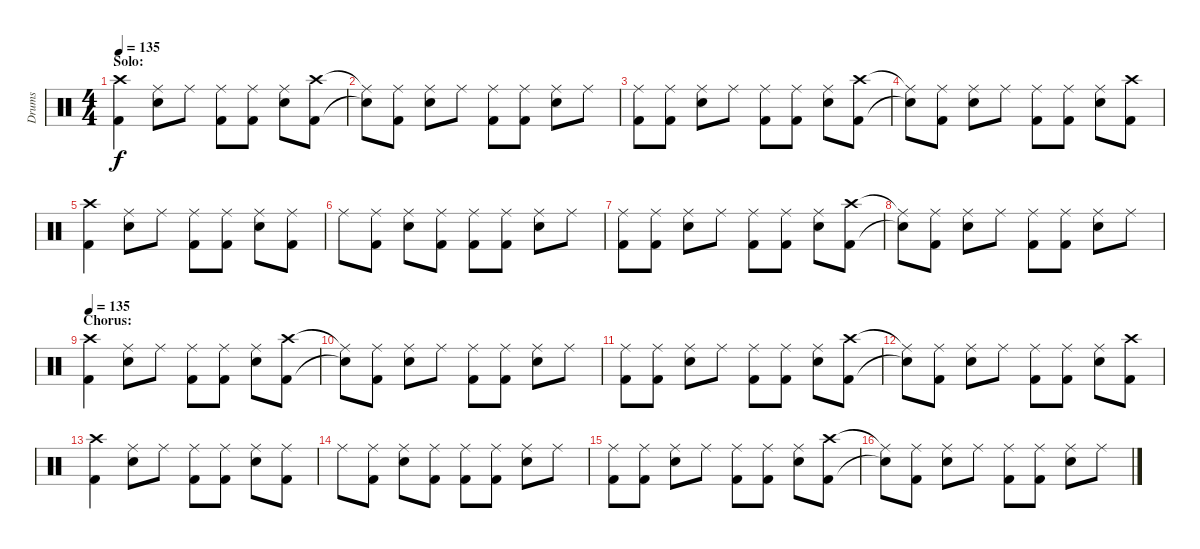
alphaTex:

\track ("Drums" "Drums") {instrument percussion}
\staff {score}
\articulation defaults
\ts (4 4)
\section ("" "Solo:")
\tempo 135
\clef neutral
\ks c
("Crash high (hit)" "Kick (hit) 2").4{dy f} ("Ride (middle)" "Electric Snare (hit)").8 "Ride (middle)".8 ("Ride (middle)" "Kick (hit) 2").8 ("Ride (middle)" "Kick (hit) 2").8 ("Ride (middle)" "Electric Snare (hit)").8 ("Crash high (hit)" "Kick (hit) 2").8 |
("Ride (middle)"{t} "Snare (hit)"{t}).8 ("Ride (middle)" "Kick (hit) 2").8 ("Ride (middle)" "Electric Snare (hit)").8 "Ride (middle)".8 ("Ride (middle)" "Kick (hit) 2").8 ("Ride (middle)" "Kick (hit) 2").8 ("Ride (middle)" "Electric Snare (hit)").8 "Ride (middle)".8 |
("Ride (middle)" "Kick (hit) 2").8 ("Ride (middle)" "Kick (hit) 2").8 ("Ride (middle)" "Electric Snare (hit)").8 "Ride (middle)".8 ("Ride (middle)" "Kick (hit) 2").8 ("Ride (middle)" "Kick (hit) 2").8 ("Ride (middle)" "Electric Snare (hit)").8 ("Crash high (hit)" "Kick (hit) 2").8 |
("Ride (middle)"{t} "Snare (hit)"{t}).8 ("Ride (middle)" "Kick (hit) 2").8 ("Ride (middle)" "Electric Snare (hit)").8 "Ride (middle)".8 ("Ride (middle)" "Kick (hit) 2").8 ("Ride (middle)" "Kick (hit) 2").8 ("Ride (middle)" "Electric Snare (hit)").8 ("Crash high (hit)" "Kick (hit) 2").8 |
("Crash high (hit)" "Kick (hit) 2").4 ("Ride (middle)" "Electric Snare (hit)").8 "Ride (middle)".8 ("Ride (middle)" "Kick (hit) 2").8 ("Ride (middle)" "Kick (hit) 2").8 ("Ride (middle)" "Electric Snare (hit)").8 ("Ride (middle)" "Kick (hit) 2").8 |
"Ride (middle)".8 ("Ride (middle)" "Kick (hit) 2").8 ("Ride (middle)" "Electric Snare (hit)").8 ("Ride (middle)" "Kick (hit) 2").8 ("Ride (middle)" "Kick (hit) 2").8 ("Ride (middle)" "Kick (hit) 2").8 ("Ride (middle)" "Electric Snare (hit)").8 "Ride (middle)".8 |
("Ride (middle)" "Kick (hit) 2").8 ("Ride (middle)" "Kick (hit) 2").8 ("Ride (middle)" "Electric Snare (hit)").8 "Ride (middle)".8 ("Ride (middle)" "Kick (hit) 2").8 ("Ride (middle)" "Kick (hit) 2").8 ("Ride (middle)" "Electric Snare (hit)").8 ("Crash high (hit)" "Kick (hit) 2").8 |
("Ride (middle)"{t} "Snare (hit)"{t}).8 ("Ride (middle)" "Kick (hit) 2").8 ("Ride (middle)" "Electric Snare (hit)").8 "Ride (middle)".8 ("Ride (middle)" "Kick (hit) 2").8 ("Ride (middle)" "Kick (hit) 2").8 ("Ride (middle)" "Electric Snare (hit)").8 "Ride (middle)".8 |
\section ("" "Chorus:")
\tempo 135
("Crash high (hit)" "Kick (hit) 2").4 ("Ride (middle)" "Electric Snare (hit)").8 "Ride (middle)".8 ("Ride (middle)" "Kick (hit) 2").8 ("Ride (middle)" "Kick (hit) 2").8 ("Ride (middle)" "Electric Snare (hit)").8 ("Crash high (hit)" "Kick (hit) 2").8 |
("Ride (middle)"{t} "Snare (hit)"{t}).8 ("Ride (middle)" "Kick (hit) 2").8 ("Ride (middle)" "Electric Snare (hit)").8 "Ride (middle)".8 ("Ride (middle)" "Kick (hit) 2").8 ("Ride (middle)" "Kick (hit) 2").8 ("Ride (middle)" "Electric Snare (hit)").8 "Ride (middle)".8 |
("Ride (middle)" "Kick (hit) 2").8 ("Ride (middle)" "Kick (hit) 2").8 ("Ride (middle)" "Electric Snare (hit)").8 "Ride (middle)".8 ("Ride (middle)" "Kick (hit) 2").8 ("Ride (middle)" "Kick (hit) 2").8 ("Ride (middle)" "Electric Snare (hit)").8 ("Crash high (hit)" "Kick (hit) 2").8 |
("Ride (middle)"{t} "Snare (hit)"{t}).8 ("Ride (middle)" "Kick (hit) 2").8 ("Ride (middle)" "Electric Snare (hit)").8 "Ride (middle)".8 ("Ride (middle)" "Kick (hit) 2").8 ("Ride (middle)" "Kick (hit) 2").8 ("Ride (middle)" "Electric Snare (hit)").8 ("Crash high (hit)" "Kick (hit) 2").8 |
("Crash high (hit)" "Kick (hit) 2").4 ("Ride (middle)" "Electric Snare (hit)").8 "Ride (middle)".8 ("Ride (middle)" "Kick (hit) 2").8 ("Ride (middle)" "Kick (hit) 2").8 ("Ride (middle)" "Electric Snare (hit)").8 ("Ride (middle)" "Kick (hit) 2").8 |
"Ride (middle)".8 ("Ride (middle)" "Kick (hit) 2").8 ("Ride (middle)" "Electric Snare (hit)").8 ("Ride (middle)" "Kick (hit) 2").8 ("Ride (middle)" "Kick (hit) 2").8 ("Ride (middle)" "Kick (hit) 2").8 ("Ride (middle)" "Electric Snare (hit)").8 "Ride (middle)".8 |
("Ride (middle)" "Kick (hit) 2").8 ("Ride (middle)" "Kick (hit) 2").8 ("Ride (middle)" "Electric Snare (hit)").8 "Ride (middle)".8 ("Ride (middle)" "Kick (hit) 2").8 ("Ride (middle)" "Kick (hit) 2").8 ("Ride (middle)" "Electric Snare (hit)").8 ("Crash high (hit)" "Kick (hit) 2").8 |
("Ride (middle)"{t} "Snare (hit)"{t}).8 ("Ride (middle)" "Kick (hit) 2").8 ("Ride (middle)" "Electric Snare (hit)").8 "Ride (middle)".8 ("Ride (middle)" "Kick (hit) 2").8 ("Ride (middle)" "Kick (hit) 2").8 ("Ride (middle)" "Electric Snare (hit)").8 "Ride (middle)".8
